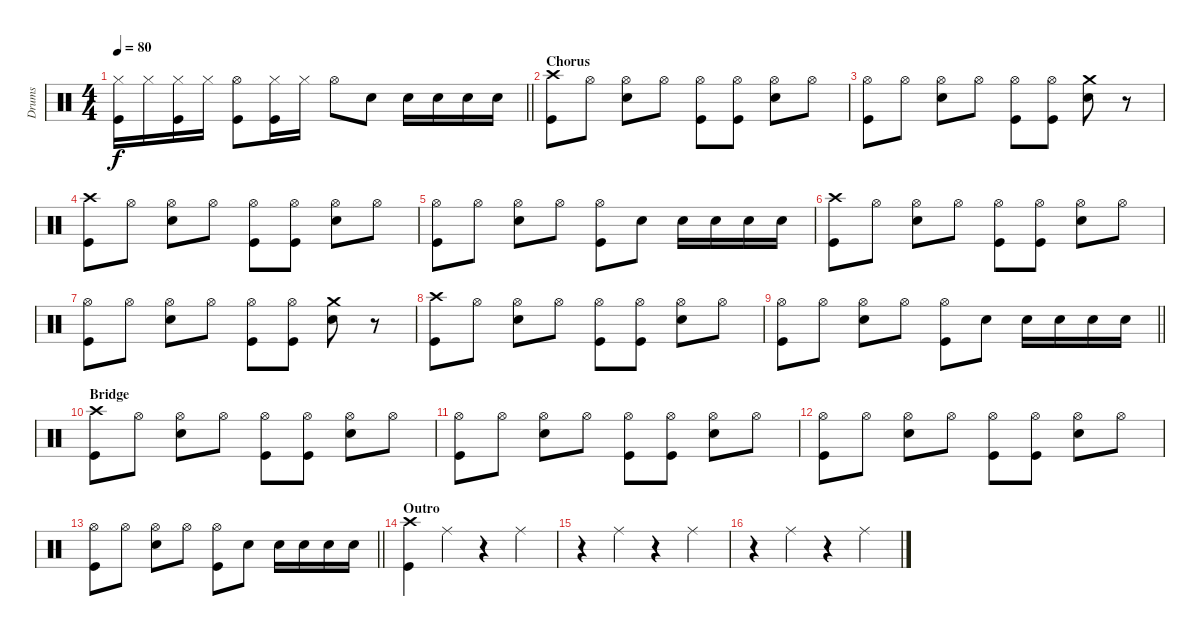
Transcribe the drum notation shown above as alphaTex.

\track ("Drums" "Drums") {instrument percussion}
\staff {score}
\articulation defaults
\ts (4 4)
\tempo 80
\clef neutral
\barLineRight lightlight
\ks c
("Hi-Hat (closed)" "Kick (hit)").16{dy f} "Hi-Hat (closed)".16 ("Hi-Hat (closed)" "Kick (hit)").16 "Hi-Hat (closed)".16 ("Kick (hit)" "Hi-Hat (open)").8 ("Hi-Hat (closed)" "Kick (hit)").16 "Hi-Hat (closed)".16 "Hi-Hat (open)".8 "Snare (hit) 2".8 "Snare (hit) 2".16 "Snare (hit) 2".16 "Snare (hit) 2".16 "Snare (hit) 2".16 |
\section ("" "Chorus")
("Crash high (hit)" "Kick (hit)").8 "Hi-Hat (open)".8 ("Hi-Hat (open)" "Snare (hit) 2").8 "Hi-Hat (open)".8 ("Hi-Hat (open)" "Kick (hit)").8 ("Hi-Hat (open)" "Kick (hit)").8 ("Hi-Hat (open)" "Snare (hit) 2").8 "Hi-Hat (open)".8 |
("Kick (hit)" "Hi-Hat (open)").8 "Hi-Hat (open)".8 ("Hi-Hat (open)" "Snare (hit) 2").8 "Hi-Hat (open)".8 ("Hi-Hat (open)" "Kick (hit)").8 ("Hi-Hat (open)" "Kick (hit)").8 ("Snare (hit) 2" "Crash medium (hit)").8 r.8 |
("Crash high (hit)" "Kick (hit)").8 "Hi-Hat (open)".8 ("Hi-Hat (open)" "Snare (hit) 2").8 "Hi-Hat (open)".8 ("Hi-Hat (open)" "Kick (hit)").8 ("Hi-Hat (open)" "Kick (hit)").8 ("Hi-Hat (open)" "Snare (hit) 2").8 "Hi-Hat (open)".8 |
("Kick (hit)" "Hi-Hat (open)").8 "Hi-Hat (open)".8 ("Hi-Hat (open)" "Snare (hit) 2").8 "Hi-Hat (open)".8 ("Hi-Hat (open)" "Kick (hit)").8 "Snare (hit) 2".8 "Snare (hit) 2".16 "Snare (hit) 2".16 "Snare (hit) 2".16 "Snare (hit) 2".16 |
("Crash high (hit)" "Kick (hit)").8 "Hi-Hat (open)".8 ("Hi-Hat (open)" "Snare (hit) 2").8 "Hi-Hat (open)".8 ("Hi-Hat (open)" "Kick (hit)").8 ("Hi-Hat (open)" "Kick (hit)").8 ("Hi-Hat (open)" "Snare (hit) 2").8 "Hi-Hat (open)".8 |
("Kick (hit)" "Hi-Hat (open)").8 "Hi-Hat (open)".8 ("Hi-Hat (open)" "Snare (hit) 2").8 "Hi-Hat (open)".8 ("Hi-Hat (open)" "Kick (hit)").8 ("Hi-Hat (open)" "Kick (hit)").8 ("Snare (hit) 2" "Crash medium (hit)").8 r.8 |
("Crash high (hit)" "Kick (hit)").8 "Hi-Hat (open)".8 ("Hi-Hat (open)" "Snare (hit) 2").8 "Hi-Hat (open)".8 ("Hi-Hat (open)" "Kick (hit)").8 ("Hi-Hat (open)" "Kick (hit)").8 ("Hi-Hat (open)" "Snare (hit) 2").8 "Hi-Hat (open)".8 |
\barLineRight lightlight
("Kick (hit)" "Hi-Hat (open)").8 "Hi-Hat (open)".8 ("Hi-Hat (open)" "Snare (hit) 2").8 "Hi-Hat (open)".8 ("Hi-Hat (open)" "Kick (hit)").8 "Snare (hit) 2".8 "Snare (hit) 2".16 "Snare (hit) 2".16 "Snare (hit) 2".16 "Snare (hit) 2".16 |
\section ("" "Bridge")
("Crash high (hit)" "Kick (hit)").8 "Hi-Hat (open)".8 ("Hi-Hat (open)" "Snare (hit) 2").8 "Hi-Hat (open)".8 ("Hi-Hat (open)" "Kick (hit)").8 ("Hi-Hat (open)" "Kick (hit)").8 ("Hi-Hat (open)" "Snare (hit) 2").8 "Hi-Hat (open)".8 |
("Hi-Hat (open)" "Kick (hit)").8 "Hi-Hat (open)".8 ("Hi-Hat (open)" "Snare (hit) 2").8 "Hi-Hat (open)".8 ("Hi-Hat (open)" "Kick (hit)").8 ("Hi-Hat (open)" "Kick (hit)").8 ("Hi-Hat (open)" "Snare (hit) 2").8 "Hi-Hat (open)".8 |
("Hi-Hat (open)" "Kick (hit)").8 "Hi-Hat (open)".8 ("Hi-Hat (open)" "Snare (hit) 2").8 "Hi-Hat (open)".8 ("Hi-Hat (open)" "Kick (hit)").8 ("Hi-Hat (open)" "Kick (hit)").8 ("Hi-Hat (open)" "Snare (hit) 2").8 "Hi-Hat (open)".8 |
\barLineRight lightlight
("Kick (hit)" "Hi-Hat (open)").8 "Hi-Hat (open)".8 ("Hi-Hat (open)" "Snare (hit) 2").8 "Hi-Hat (open)".8 ("Hi-Hat (open)" "Kick (hit)").8 "Snare (hit) 2".8 "Snare (hit) 2".16 "Snare (hit) 2".16 "Snare (hit) 2".16 "Snare (hit) 2".16 |
\section ("" "Outro")
("Kick (hit)" "Crash high (hit)").4 "Ride (middle)".4 r.4 "Ride (middle)".4 |
r.4 "Ride (middle)".4 r.4 "Ride (middle)".4 |
r.4 "Ride (middle)".4 r.4 "Ride (middle)".4
